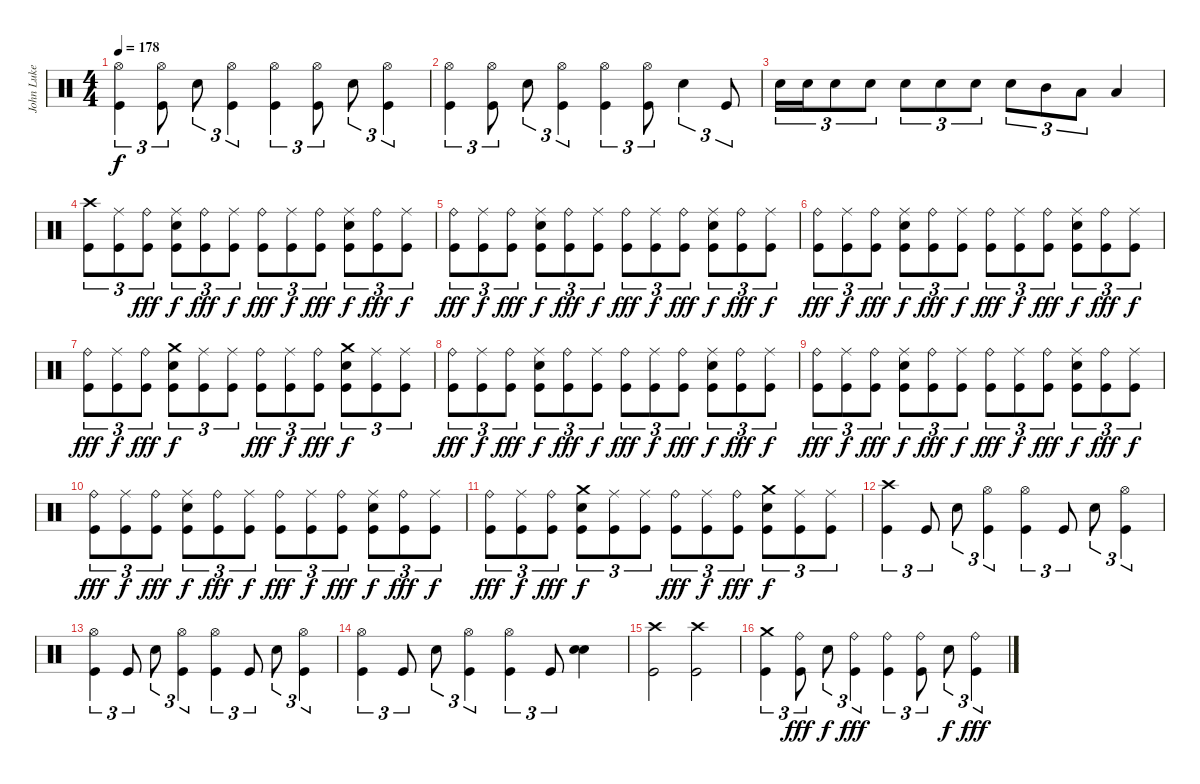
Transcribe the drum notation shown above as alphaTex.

\track ("John Luke (Drums)" "John Luke ") {instrument percussion}
\staff {score}
\articulation defaults
\ts (4 4)
\tempo 178
\clef neutral
\ks c
("Hi-Hat (open)" "Kick (hit)").4{tu (3 2) dy f} ("Hi-Hat (open)" "Kick (hit)").8{tu (3 2)} "Electric Snare (hit)".8{tu (3 2)} ("Hi-Hat (open)" "Kick (hit)").4{tu (3 2)} ("Hi-Hat (open)" "Kick (hit)").4{tu (3 2)} ("Hi-Hat (open)" "Kick (hit)").8{tu (3 2)} "Electric Snare (hit)".8{tu (3 2)} ("Hi-Hat (open)" "Kick (hit)").4{tu (3 2)} |
("Hi-Hat (open)" "Kick (hit)").4{tu (3 2)} ("Hi-Hat (open)" "Kick (hit)").8{tu (3 2)} "Electric Snare (hit)".8{tu (3 2)} ("Hi-Hat (open)" "Kick (hit)").4{tu (3 2)} ("Hi-Hat (open)" "Kick (hit)").4{tu (3 2)} ("Hi-Hat (open)" "Kick (hit)").8{tu (3 2)} "Electric Snare (hit)".4{tu (3 2)} "Kick (hit)".8{tu (3 2)} |
"Electric Snare (hit)".16{tu (3 2)} "Electric Snare (hit)".16{tu (3 2)} "Electric Snare (hit)".8{tu (3 2)} "Electric Snare (hit)".8{tu (3 2)} "Electric Snare (hit)".8{tu (3 2)} "Electric Snare (hit)".8{tu (3 2)} "Electric Snare (hit)".8{tu (3 2)} "Electric Snare (hit)".8{tu (3 2)} "Mid Tom (hit)".8{tu (3 2)} "Low Tom (hit)".8{tu (3 2)} "Low Tom (hit)".4 |
("Crash high (hit)" "Kick (hit)").8{tu (3 2)} ("Ride (middle)" "Kick (hit)").8{tu (3 2)} ("Ride (bell)" "Kick (hit)").8{tu (3 2) dy fff} ("Ride (middle)" "Electric Snare (hit)" "Kick (hit)").8{tu (3 2) dy f} ("Ride (bell)" "Kick (hit)").8{tu (3 2) dy fff} ("Ride (middle)" "Kick (hit)").8{tu (3 2) dy f} ("Ride (bell)" "Kick (hit)").8{tu (3 2) dy fff} ("Ride (middle)" "Kick (hit)").8{tu (3 2) dy f} ("Ride (bell)" "Kick (hit)").8{tu (3 2) dy fff} ("Ride (middle)" "Electric Snare (hit)" "Kick (hit)").8{tu (3 2) dy f} ("Ride (bell)" "Kick (hit)").8{tu (3 2) dy fff} ("Ride (middle)" "Kick (hit)").8{tu (3 2) dy f} |
("Ride (bell)" "Kick (hit)").8{tu (3 2) dy fff} ("Ride (middle)" "Kick (hit)").8{tu (3 2) dy f} ("Ride (bell)" "Kick (hit)").8{tu (3 2) dy fff} ("Ride (middle)" "Electric Snare (hit)" "Kick (hit)").8{tu (3 2) dy f} ("Ride (bell)" "Kick (hit)").8{tu (3 2) dy fff} ("Ride (middle)" "Kick (hit)").8{tu (3 2) dy f} ("Ride (bell)" "Kick (hit)").8{tu (3 2) dy fff} ("Ride (middle)" "Kick (hit)").8{tu (3 2) dy f} ("Ride (bell)" "Kick (hit)").8{tu (3 2) dy fff} ("Ride (middle)" "Electric Snare (hit)" "Kick (hit)").8{tu (3 2) dy f} ("Ride (bell)" "Kick (hit)").8{tu (3 2) dy fff} ("Ride (middle)" "Kick (hit)").8{tu (3 2) dy f} |
("Ride (bell)" "Kick (hit)").8{tu (3 2) dy fff} ("Ride (middle)" "Kick (hit)").8{tu (3 2) dy f} ("Ride (bell)" "Kick (hit)").8{tu (3 2) dy fff} ("Ride (middle)" "Electric Snare (hit)" "Kick (hit)").8{tu (3 2) dy f} ("Ride (bell)" "Kick (hit)").8{tu (3 2) dy fff} ("Ride (middle)" "Kick (hit)").8{tu (3 2) dy f} ("Ride (bell)" "Kick (hit)").8{tu (3 2) dy fff} ("Ride (middle)" "Kick (hit)").8{tu (3 2) dy f} ("Ride (bell)" "Kick (hit)").8{tu (3 2) dy fff} ("Ride (middle)" "Electric Snare (hit)" "Kick (hit)").8{tu (3 2) dy f} ("Ride (bell)" "Kick (hit)").8{tu (3 2) dy fff} ("Ride (middle)" "Kick (hit)").8{tu (3 2) dy f} |
("Ride (bell)" "Kick (hit)").8{tu (3 2) dy fff} ("Ride (middle)" "Kick (hit)").8{tu (3 2) dy f} ("Ride (bell)" "Kick (hit)").8{tu (3 2) dy fff} ("Crash medium (hit)" "Electric Snare (hit)" "Kick (hit)").8{tu (3 2) dy f} ("Ride (middle)" "Kick (hit)").8{tu (3 2)} ("Ride (middle)" "Kick (hit)").8{tu (3 2)} ("Ride (bell)" "Kick (hit)").8{tu (3 2) dy fff} ("Ride (middle)" "Kick (hit)").8{tu (3 2) dy f} ("Ride (bell)" "Kick (hit)").8{tu (3 2) dy fff} ("Crash medium (hit)" "Electric Snare (hit)" "Kick (hit)").8{tu (3 2) dy f} ("Ride (middle)" "Kick (hit)").8{tu (3 2)} ("Ride (middle)" "Kick (hit)").8{tu (3 2)} |
("Ride (bell)" "Kick (hit)").8{tu (3 2) dy fff} ("Ride (middle)" "Kick (hit)").8{tu (3 2) dy f} ("Ride (bell)" "Kick (hit)").8{tu (3 2) dy fff} ("Ride (middle)" "Electric Snare (hit)" "Kick (hit)").8{tu (3 2) dy f} ("Ride (bell)" "Kick (hit)").8{tu (3 2) dy fff} ("Ride (middle)" "Kick (hit)").8{tu (3 2) dy f} ("Ride (bell)" "Kick (hit)").8{tu (3 2) dy fff} ("Ride (middle)" "Kick (hit)").8{tu (3 2) dy f} ("Ride (bell)" "Kick (hit)").8{tu (3 2) dy fff} ("Ride (middle)" "Electric Snare (hit)" "Kick (hit)").8{tu (3 2) dy f} ("Ride (bell)" "Kick (hit)").8{tu (3 2) dy fff} ("Ride (middle)" "Kick (hit)").8{tu (3 2) dy f} |
("Ride (bell)" "Kick (hit)").8{tu (3 2) dy fff} ("Ride (middle)" "Kick (hit)").8{tu (3 2) dy f} ("Ride (bell)" "Kick (hit)").8{tu (3 2) dy fff} ("Ride (middle)" "Electric Snare (hit)" "Kick (hit)").8{tu (3 2) dy f} ("Ride (bell)" "Kick (hit)").8{tu (3 2) dy fff} ("Ride (middle)" "Kick (hit)").8{tu (3 2) dy f} ("Ride (bell)" "Kick (hit)").8{tu (3 2) dy fff} ("Ride (middle)" "Kick (hit)").8{tu (3 2) dy f} ("Ride (bell)" "Kick (hit)").8{tu (3 2) dy fff} ("Ride (middle)" "Electric Snare (hit)" "Kick (hit)").8{tu (3 2) dy f} ("Ride (bell)" "Kick (hit)").8{tu (3 2) dy fff} ("Ride (middle)" "Kick (hit)").8{tu (3 2) dy f} |
("Ride (bell)" "Kick (hit)").8{tu (3 2) dy fff} ("Ride (middle)" "Kick (hit)").8{tu (3 2) dy f} ("Ride (bell)" "Kick (hit)").8{tu (3 2) dy fff} ("Ride (middle)" "Electric Snare (hit)" "Kick (hit)").8{tu (3 2) dy f} ("Ride (bell)" "Kick (hit)").8{tu (3 2) dy fff} ("Ride (middle)" "Kick (hit)").8{tu (3 2) dy f} ("Ride (bell)" "Kick (hit)").8{tu (3 2) dy fff} ("Ride (middle)" "Kick (hit)").8{tu (3 2) dy f} ("Ride (bell)" "Kick (hit)").8{tu (3 2) dy fff} ("Ride (middle)" "Electric Snare (hit)" "Kick (hit)").8{tu (3 2) dy f} ("Ride (bell)" "Kick (hit)").8{tu (3 2) dy fff} ("Ride (middle)" "Kick (hit)").8{tu (3 2) dy f} |
("Ride (bell)" "Kick (hit)").8{tu (3 2) dy fff} ("Ride (middle)" "Kick (hit)").8{tu (3 2) dy f} ("Ride (bell)" "Kick (hit)").8{tu (3 2) dy fff} ("Crash medium (hit)" "Electric Snare (hit)" "Kick (hit)").8{tu (3 2) dy f} ("Ride (middle)" "Kick (hit)").8{tu (3 2)} ("Ride (middle)" "Kick (hit)").8{tu (3 2)} ("Ride (bell)" "Kick (hit)").8{tu (3 2) dy fff} ("Ride (middle)" "Kick (hit)").8{tu (3 2) dy f} ("Ride (bell)" "Kick (hit)").8{tu (3 2) dy fff} ("Crash medium (hit)" "Electric Snare (hit)" "Kick (hit)").8{tu (3 2) dy f} ("Ride (middle)" "Kick (hit)").8{tu (3 2)} ("Ride (middle)" "Kick (hit)").8{tu (3 2)} |
("Crash high (hit)" "Kick (hit)").4{tu (3 2)} "Kick (hit)".8{tu (3 2)} "Electric Snare (hit)".8{tu (3 2)} ("Hi-Hat (open)" "Kick (hit)").4{tu (3 2)} ("Hi-Hat (open)" "Kick (hit)").4{tu (3 2)} "Kick (hit)".8{tu (3 2)} "Electric Snare (hit)".8{tu (3 2)} ("Hi-Hat (open)" "Kick (hit)").4{tu (3 2)} |
("Hi-Hat (open)" "Kick (hit)").4{tu (3 2)} "Kick (hit)".8{tu (3 2)} "Electric Snare (hit)".8{tu (3 2)} ("Hi-Hat (open)" "Kick (hit)").4{tu (3 2)} ("Hi-Hat (open)" "Kick (hit)").4{tu (3 2)} "Kick (hit)".8{tu (3 2)} "Electric Snare (hit)".8{tu (3 2)} ("Hi-Hat (open)" "Kick (hit)").4{tu (3 2)} |
("Hi-Hat (open)" "Kick (hit)").4{tu (3 2)} "Kick (hit)".8{tu (3 2)} "Electric Snare (hit)".8{tu (3 2)} ("Hi-Hat (open)" "Kick (hit)").4{tu (3 2)} ("Hi-Hat (open)" "Kick (hit)").4{tu (3 2)} "Kick (hit)".8{tu (3 2)} ("Electric Snare (hit)" "Electric Snare (hit)").4{bu 240} |
("Crash high (hit)" "Kick (hit)").2 ("Crash high (hit)" "Kick (hit)").2 |
("Crash medium (hit)" "Kick (hit)").4{tu (3 2)} ("Ride (bell)" "Kick (hit)").8{tu (3 2) dy fff} "Electric Snare (hit)".8{tu (3 2) dy f} ("Ride (bell)" "Kick (hit)").4{tu (3 2) dy fff} ("Ride (bell)" "Kick (hit)").4{tu (3 2)} ("Ride (bell)" "Kick (hit)").8{tu (3 2)} "Electric Snare (hit)".8{tu (3 2) dy f} ("Ride (bell)" "Kick (hit)").4{tu (3 2) dy fff}
